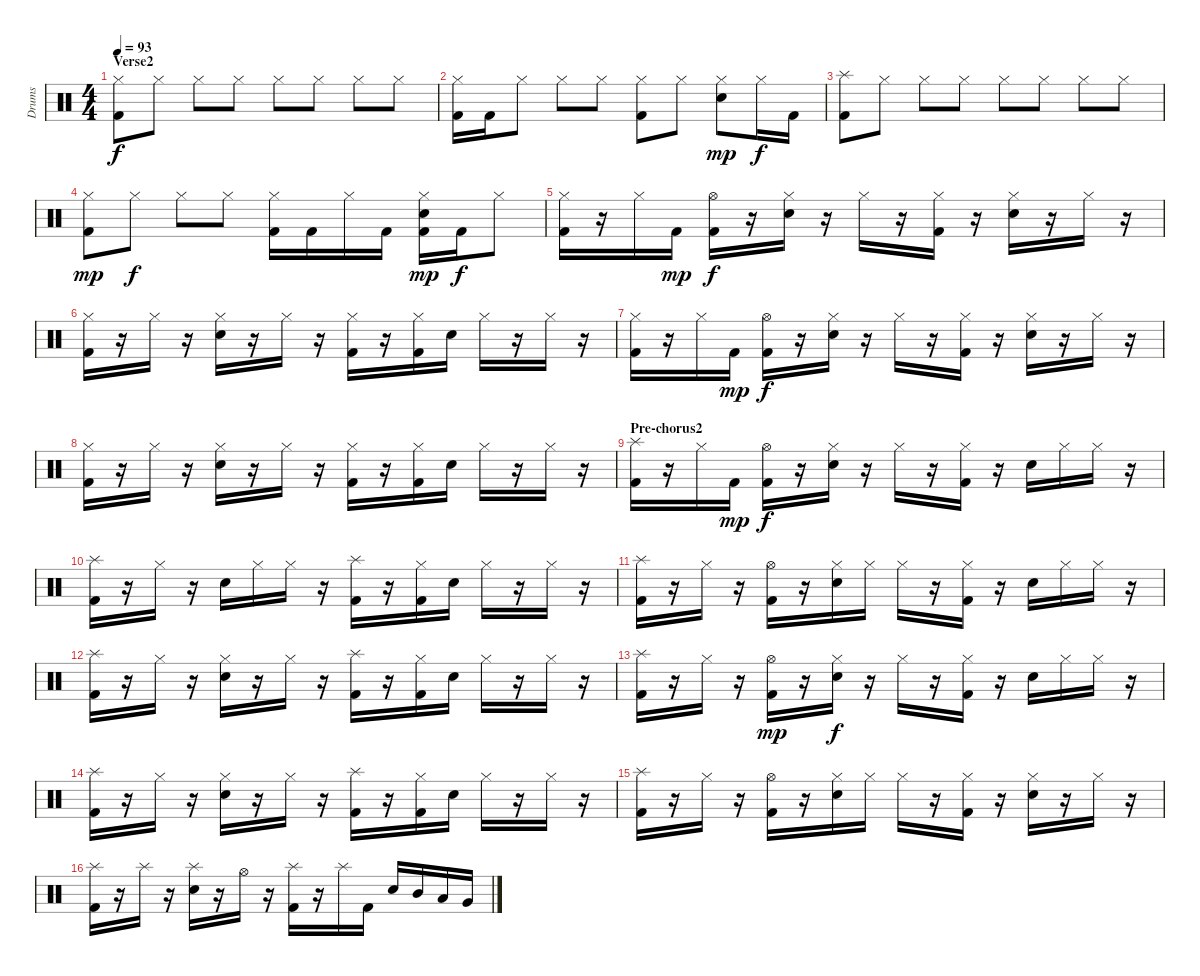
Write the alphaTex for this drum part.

\track ("Drums" "Drums") {instrument percussion}
\staff {score}
\articulation defaults
\ts (4 4)
\section ("" "Verse2")
\tempo 93
\clef neutral
\ks c
("Hi-Hat (closed)" "Kick (hit) 2").8{dy f} "Hi-Hat (closed)".8 "Hi-Hat (closed)".8 "Hi-Hat (closed)".8 "Hi-Hat (closed)".8 "Hi-Hat (closed)".8 "Hi-Hat (closed)".8 "Hi-Hat (closed)".8 |
("Hi-Hat (closed)" "Kick (hit) 2").16 "Kick (hit) 2".16 "Hi-Hat (closed)".8 "Hi-Hat (closed)".8 "Hi-Hat (closed)".8 ("Hi-Hat (closed)" "Kick (hit) 2").8 "Hi-Hat (closed)".8 ("Hi-Hat (closed)" "Snare (hit) 2").8{dy mp} "Hi-Hat (closed)".16{dy f} "Kick (hit) 2".16 |
("Splash (hit)" "Kick (hit) 2").8 "Hi-Hat (closed)".8 "Hi-Hat (closed)".8 "Hi-Hat (closed)".8 "Hi-Hat (closed)".8 "Hi-Hat (closed)".8 "Hi-Hat (closed)".8 "Hi-Hat (closed)".8 |
("Hi-Hat (closed)" "Kick (hit) 2").8{dy mp} "Hi-Hat (closed)".8{dy f} "Hi-Hat (closed)".8 "Hi-Hat (closed)".8 ("Hi-Hat (closed)" "Kick (hit) 2").16 "Kick (hit) 2".16 "Hi-Hat (closed)".16 "Kick (hit) 2".16 ("Hi-Hat (closed)" "Snare (hit) 2" "Kick (hit) 2").16{dy mp} "Kick (hit) 2".16{dy f} "Hi-Hat (closed)".8 |
("Hi-Hat (closed)" "Kick (hit) 2").16 r.16 "Hi-Hat (closed)".16 "Kick (hit) 2".16{dy mp} ("Hi-Hat (open)" "Kick (hit) 2").16{dy f} r.16 ("Hi-Hat (closed)" "Snare (hit) 2").16 r.16 "Hi-Hat (closed)".16 r.16 ("Hi-Hat (closed)" "Kick (hit) 2").16 r.16 ("Hi-Hat (closed)" "Snare (hit) 2").16 r.16 "Hi-Hat (closed)".16 r.16 |
("Hi-Hat (closed)" "Kick (hit) 2").16 r.16 "Hi-Hat (closed)".16 r.16 ("Hi-Hat (closed)" "Snare (hit) 2").16 r.16 "Hi-Hat (closed)".16 r.16 ("Hi-Hat (closed)" "Kick (hit) 2").16 r.16 ("Hi-Hat (closed)" "Kick (hit) 2").16 "Snare (hit) 2".16 "Hi-Hat (closed)".16 r.16 "Hi-Hat (closed)".16 r.16 |
("Hi-Hat (closed)" "Kick (hit) 2").16 r.16 "Hi-Hat (closed)".16 "Kick (hit) 2".16{dy mp} ("Hi-Hat (open)" "Kick (hit) 2").16{dy f} r.16 ("Hi-Hat (closed)" "Snare (hit) 2").16 r.16 "Hi-Hat (closed)".16 r.16 ("Hi-Hat (closed)" "Kick (hit) 2").16 r.16 ("Hi-Hat (closed)" "Snare (hit) 2").16 r.16 "Hi-Hat (closed)".16 r.16 |
("Hi-Hat (closed)" "Kick (hit) 2").16 r.16 "Hi-Hat (closed)".16 r.16 ("Hi-Hat (closed)" "Snare (hit) 2").16 r.16 "Hi-Hat (closed)".16 r.16 ("Hi-Hat (closed)" "Kick (hit) 2").16 r.16 ("Hi-Hat (closed)" "Kick (hit) 2").16 "Snare (hit) 2".16 "Hi-Hat (closed)".16 r.16 "Hi-Hat (closed)".16 r.16 |
\section ("" "Pre-chorus2")
("Splash (hit)" "Kick (hit) 2").16 r.16 "Hi-Hat (closed)".16 "Kick (hit) 2".16{dy mp} ("Hi-Hat (open)" "Kick (hit) 2").16{dy f} r.16 ("Hi-Hat (closed)" "Snare (hit) 2").16 r.16 "Hi-Hat (closed)".16 r.16 ("Hi-Hat (closed)" "Kick (hit) 2").16 r.16 "Snare (hit) 2".16 "Hi-Hat (closed)".16 "Hi-Hat (closed)".16 r.16 |
("Splash (hit)" "Kick (hit) 2").16 r.16 "Hi-Hat (closed)".16 r.16 "Snare (hit) 2".16 "Hi-Hat (closed)".16 "Hi-Hat (closed)".16 r.16 ("Splash (hit)" "Kick (hit) 2").16 r.16 ("Hi-Hat (closed)" "Kick (hit) 2").16 "Snare (hit) 2".16 "Hi-Hat (closed)".16 r.16 "Hi-Hat (closed)".16 r.16 |
("Splash (hit)" "Kick (hit) 2").16 r.16 "Hi-Hat (closed)".16 r.16 ("Hi-Hat (open)" "Kick (hit) 2").16 r.16 ("Hi-Hat (closed)" "Snare (hit) 2").16 "Hi-Hat (closed)".16 "Hi-Hat (closed)".16 r.16 ("Hi-Hat (closed)" "Kick (hit) 2").16 r.16 "Snare (hit) 2".16 "Hi-Hat (closed)".16 "Hi-Hat (closed)".16 r.16 |
("Splash (hit)" "Kick (hit) 2").16 r.16 "Hi-Hat (closed)".16 r.16 ("Hi-Hat (closed)" "Snare (hit) 2").16 r.16 "Hi-Hat (closed)".16 r.16 ("Splash (hit)" "Kick (hit) 2").16 r.16 ("Hi-Hat (closed)" "Kick (hit) 2").16 "Snare (hit) 2".16 "Hi-Hat (closed)".16 r.16 "Hi-Hat (closed)".16 r.16 |
("Splash (hit)" "Kick (hit) 2").16 r.16 "Hi-Hat (closed)".16 r.16 ("Hi-Hat (open)" "Kick (hit) 2").16{dy mp} r.16 ("Hi-Hat (closed)" "Snare (hit) 2").16{dy f} r.16 "Hi-Hat (closed)".16 r.16 ("Hi-Hat (closed)" "Kick (hit) 2").16 r.16 "Snare (hit) 2".16 "Hi-Hat (closed)".16 "Hi-Hat (closed)".16 r.16 |
("Splash (hit)" "Kick (hit) 2").16 r.16 "Hi-Hat (closed)".16 r.16 ("Hi-Hat (closed)" "Snare (hit) 2").16 r.16 "Hi-Hat (closed)".16 r.16 ("Splash (hit)" "Kick (hit) 2").16 r.16 ("Hi-Hat (closed)" "Kick (hit) 2").16 "Snare (hit) 2".16 "Hi-Hat (closed)".16 r.16 "Hi-Hat (closed)".16 r.16 |
("Splash (hit)" "Kick (hit) 2").16 r.16 "Hi-Hat (closed)".16 r.16 ("Hi-Hat (open)" "Kick (hit) 2").16 r.16 ("Hi-Hat (closed)" "Snare (hit) 2").16 "Hi-Hat (closed)".16 "Hi-Hat (closed)".16 r.16 ("Hi-Hat (closed)" "Kick (hit) 2").16 r.16 ("Hi-Hat (closed)" "Snare (hit) 2").16 r.16 "Hi-Hat (closed)".16 r.16 |
("Splash (hit)" "Kick (hit) 2").16 r.16 "Splash (hit)".16 r.16 ("Splash (hit)" "Snare (hit) 2").16 r.16 "Hi-Hat (open)".16 r.16 ("Splash (hit)" "Kick (hit) 2").16 r.16 "Splash (hit)".16 "Kick (hit) 2".16 "Snare (hit) 2".16 "Mid Tom (hit)".16 "Low Tom (hit)".16 "Very Low Tom (hit)".16
